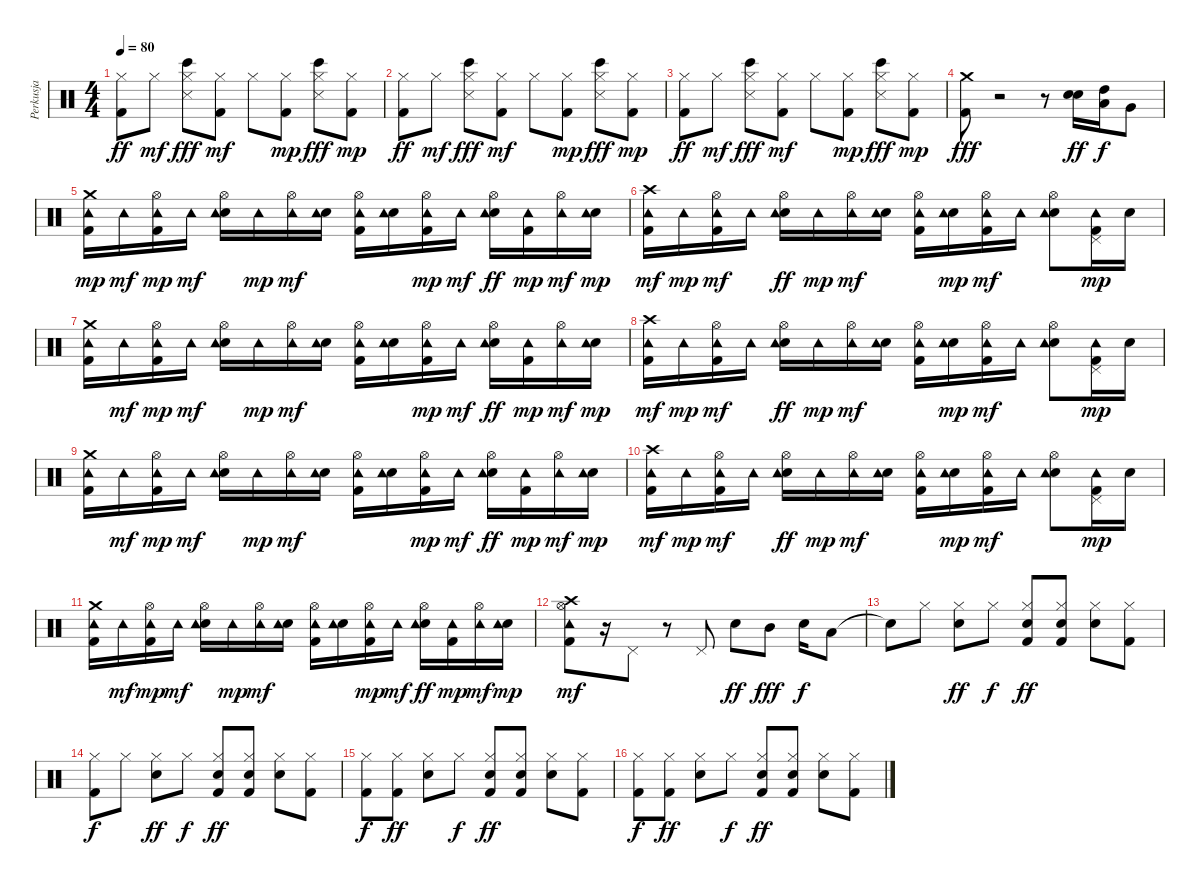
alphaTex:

\track ("Perkusja" "Perkusja") {instrument percussion}
\staff {score}
\articulation defaults
\ts (4 4)
\tempo 80
\clef neutral
\ks c
("Kick (hit) 2" "Hi-Hat (closed)").8{dy ff} "Hi-Hat (closed)".8{dy mf} ("Bongo High (hit)" "Snare (side stick) 3" "Hi-Hat (closed)").8{dy fff} ("Kick (hit) 2" "Hi-Hat (closed)").8{dy mf} "Hi-Hat (closed)".8 ("Kick (hit) 2" "Hi-Hat (closed)").8{dy mp} ("Bongo High (hit)" "Snare (side stick) 3" "Hi-Hat (closed)").8{dy fff} ("Hi-Hat (closed)" "Kick (hit) 2").8{dy mp} |
("Kick (hit) 2" "Hi-Hat (closed)").8{dy ff} "Hi-Hat (closed)".8{dy mf} ("Bongo High (hit)" "Snare (side stick) 3" "Hi-Hat (closed)").8{dy fff} ("Kick (hit) 2" "Hi-Hat (closed)").8{dy mf} "Hi-Hat (closed)".8 ("Kick (hit) 2" "Hi-Hat (closed)").8{dy mp} ("Bongo High (hit)" "Snare (side stick) 3" "Hi-Hat (closed)").8{dy fff} ("Hi-Hat (closed)" "Kick (hit) 2").8{dy mp} |
("Kick (hit) 2" "Hi-Hat (closed)").8{dy ff} "Hi-Hat (closed)".8{dy mf} ("Bongo High (hit)" "Snare (side stick) 3" "Hi-Hat (closed)").8{dy fff} ("Kick (hit) 2" "Hi-Hat (closed)").8{dy mf} "Hi-Hat (closed)".8 ("Kick (hit) 2" "Hi-Hat (closed)").8{dy mp} ("Bongo High (hit)" "Snare (side stick) 3" "Hi-Hat (closed)").8{dy fff} ("Hi-Hat (closed)" "Kick (hit) 2").8{dy mp} |
("Kick (hit) 2" "Crash medium (hit)").8{dy fff} r.2 r.8 ("Electric Snare (hit)" "Electric Snare (hit)").16{dy ff} ("High Tom (hit)" "Low Tom (hit)").16{dy f} "Very Low Tom (hit)".8 |
("Kick (hit) 2" "Tambourine (hit)" "Crash medium (hit)").16{dy mp} "Tambourine (hit)".16{dy mf} ("Kick (hit) 2" "Hi-Hat (open)" "Tambourine (hit)").16{dy mp} "Tambourine (hit)".16{dy mf} ("Electric Snare (hit)" "Hi-Hat (open)" "Tambourine (hit)").16 "Tambourine (hit)".16{dy mp} ("Hi-Hat (open)" "Tambourine (hit)").16{dy mf} ("Electric Snare (hit)" "Tambourine (hit)").16 ("Kick (hit) 2" "Hi-Hat (open)" "Tambourine (hit)").16 ("Electric Snare (hit)" "Tambourine (hit)").16 ("Kick (hit) 2" "Hi-Hat (open)" "Tambourine (hit)").16{dy mp} "Tambourine (hit)".16{dy mf} ("Electric Snare (hit)" "Hi-Hat (open)" "Tambourine (hit)").16{dy ff} ("Kick (hit) 2" "Tambourine (hit)").16{dy mp} ("Hi-Hat (open)" "Tambourine (hit)").16{dy mf} ("Electric Snare (hit)" "Tambourine (hit)").16{dy mp} |
("Kick (hit) 2" "Crash high (hit)" "Tambourine (hit)").16{dy mf} "Tambourine (hit)".16{dy mp} ("Kick (hit) 2" "Hi-Hat (open)" "Tambourine (hit)").16{dy mf} "Tambourine (hit)".16 ("Electric Snare (hit)" "Hi-Hat (open)" "Tambourine (hit)").16{dy ff} "Tambourine (hit)".16{dy mp} ("Hi-Hat (open)" "Tambourine (hit)").16{dy mf} ("Electric Snare (hit)" "Tambourine (hit)").16 ("Kick (hit) 2" "Hi-Hat (open)" "Tambourine (hit)").16 ("Electric Snare (hit)" "Tambourine (hit)").16{dy mp} ("Kick (hit) 2" "Hi-Hat (open)" "Tambourine (hit)").16{dy mf} "Tambourine (hit)".16 ("Electric Snare (hit)" "Hi-Hat (open)" "Tambourine (hit)").8 ("Kick (hit) 2" "Pedal Hi-Hat (hit)" "Tambourine (hit)").16{dy mp} "Electric Snare (hit)".16 |
("Kick (hit) 2" "Tambourine (hit)" "Crash medium (hit)").16 "Tambourine (hit)".16{dy mf} ("Kick (hit) 2" "Hi-Hat (open)" "Tambourine (hit)").16{dy mp} "Tambourine (hit)".16{dy mf} ("Electric Snare (hit)" "Hi-Hat (open)" "Tambourine (hit)").16 "Tambourine (hit)".16{dy mp} ("Hi-Hat (open)" "Tambourine (hit)").16{dy mf} ("Electric Snare (hit)" "Tambourine (hit)").16 ("Kick (hit) 2" "Hi-Hat (open)" "Tambourine (hit)").16 ("Electric Snare (hit)" "Tambourine (hit)").16 ("Kick (hit) 2" "Hi-Hat (open)" "Tambourine (hit)").16{dy mp} "Tambourine (hit)".16{dy mf} ("Electric Snare (hit)" "Hi-Hat (open)" "Tambourine (hit)").16{dy ff} ("Kick (hit) 2" "Tambourine (hit)").16{dy mp} ("Hi-Hat (open)" "Tambourine (hit)").16{dy mf} ("Electric Snare (hit)" "Tambourine (hit)").16{dy mp} |
("Kick (hit) 2" "Crash high (hit)" "Tambourine (hit)").16{dy mf} "Tambourine (hit)".16{dy mp} ("Kick (hit) 2" "Hi-Hat (open)" "Tambourine (hit)").16{dy mf} "Tambourine (hit)".16 ("Electric Snare (hit)" "Hi-Hat (open)" "Tambourine (hit)").16{dy ff} "Tambourine (hit)".16{dy mp} ("Hi-Hat (open)" "Tambourine (hit)").16{dy mf} ("Electric Snare (hit)" "Tambourine (hit)").16 ("Kick (hit) 2" "Hi-Hat (open)" "Tambourine (hit)").16 ("Electric Snare (hit)" "Tambourine (hit)").16{dy mp} ("Kick (hit) 2" "Hi-Hat (open)" "Tambourine (hit)").16{dy mf} "Tambourine (hit)".16 ("Electric Snare (hit)" "Hi-Hat (open)" "Tambourine (hit)").8 ("Kick (hit) 2" "Pedal Hi-Hat (hit)" "Tambourine (hit)").16{dy mp} "Electric Snare (hit)".16 |
("Kick (hit) 2" "Tambourine (hit)" "Crash medium (hit)").16 "Tambourine (hit)".16{dy mf} ("Kick (hit) 2" "Hi-Hat (open)" "Tambourine (hit)").16{dy mp} "Tambourine (hit)".16{dy mf} ("Electric Snare (hit)" "Hi-Hat (open)" "Tambourine (hit)").16 "Tambourine (hit)".16{dy mp} ("Hi-Hat (open)" "Tambourine (hit)").16{dy mf} ("Electric Snare (hit)" "Tambourine (hit)").16 ("Kick (hit) 2" "Hi-Hat (open)" "Tambourine (hit)").16 ("Electric Snare (hit)" "Tambourine (hit)").16 ("Kick (hit) 2" "Hi-Hat (open)" "Tambourine (hit)").16{dy mp} "Tambourine (hit)".16{dy mf} ("Electric Snare (hit)" "Hi-Hat (open)" "Tambourine (hit)").16{dy ff} ("Kick (hit) 2" "Tambourine (hit)").16{dy mp} ("Hi-Hat (open)" "Tambourine (hit)").16{dy mf} ("Electric Snare (hit)" "Tambourine (hit)").16{dy mp} |
("Kick (hit) 2" "Crash high (hit)" "Tambourine (hit)").16{dy mf} "Tambourine (hit)".16{dy mp} ("Kick (hit) 2" "Hi-Hat (open)" "Tambourine (hit)").16{dy mf} "Tambourine (hit)".16 ("Electric Snare (hit)" "Hi-Hat (open)" "Tambourine (hit)").16{dy ff} "Tambourine (hit)".16{dy mp} ("Hi-Hat (open)" "Tambourine (hit)").16{dy mf} ("Electric Snare (hit)" "Tambourine (hit)").16 ("Kick (hit) 2" "Hi-Hat (open)" "Tambourine (hit)").16 ("Electric Snare (hit)" "Tambourine (hit)").16{dy mp} ("Kick (hit) 2" "Hi-Hat (open)" "Tambourine (hit)").16{dy mf} "Tambourine (hit)".16 ("Electric Snare (hit)" "Hi-Hat (open)" "Tambourine (hit)").8 ("Kick (hit) 2" "Pedal Hi-Hat (hit)" "Tambourine (hit)").16{dy mp} "Electric Snare (hit)".16 |
("Kick (hit) 2" "Tambourine (hit)" "Crash medium (hit)").16 "Tambourine (hit)".16{dy mf} ("Kick (hit) 2" "Hi-Hat (open)" "Tambourine (hit)").16{dy mp} "Tambourine (hit)".16{dy mf} ("Electric Snare (hit)" "Hi-Hat (open)" "Tambourine (hit)").16 "Tambourine (hit)".16{dy mp} ("Hi-Hat (open)" "Tambourine (hit)").16{dy mf} ("Electric Snare (hit)" "Tambourine (hit)").16 ("Kick (hit) 2" "Hi-Hat (open)" "Tambourine (hit)").16 ("Electric Snare (hit)" "Tambourine (hit)").16 ("Kick (hit) 2" "Hi-Hat (open)" "Tambourine (hit)").16{dy mp} "Tambourine (hit)".16{dy mf} ("Electric Snare (hit)" "Hi-Hat (open)" "Tambourine (hit)").16{dy ff} ("Kick (hit) 2" "Tambourine (hit)").16{dy mp} ("Hi-Hat (open)" "Tambourine (hit)").16{dy mf} ("Electric Snare (hit)" "Tambourine (hit)").16{dy mp} |
("Kick (hit) 2" "Hi-Hat (open)" "Crash high (hit)" "Tambourine (hit)").8{dy mf} r.16 "Pedal Hi-Hat (hit)".8 r.8 "Pedal Hi-Hat (hit)".8 "Electric Snare (hit)".8{dy ff} "Mid Tom (hit)".8{dy fff} "Electric Snare (hit)".16{dy f} "Low Tom (hit)".8 |
"Snare (hit)"{t}.8 "Hi-Hat (closed)".8 ("Hi-Hat (closed)" "Electric Snare (hit)").8{dy ff} "Hi-Hat (closed)".8{dy f} ("Electric Snare (hit)" "Hi-Hat (closed)" "Kick (hit) 2").8{dy ff} ("Electric Snare (hit)" "Hi-Hat (closed)" "Kick (hit) 2").8 ("Hi-Hat (closed)" "Electric Snare (hit)").8 ("Kick (hit) 2" "Hi-Hat (closed)").8 |
("Hi-Hat (closed)" "Kick (hit) 2").8{dy f} "Hi-Hat (closed)".8 ("Hi-Hat (closed)" "Electric Snare (hit)").8{dy ff} "Hi-Hat (closed)".8{dy f} ("Electric Snare (hit)" "Hi-Hat (closed)" "Kick (hit) 2").8{dy ff} ("Electric Snare (hit)" "Hi-Hat (closed)" "Kick (hit) 2").8 ("Hi-Hat (closed)" "Electric Snare (hit)").8 ("Kick (hit) 2" "Hi-Hat (closed)").8 |
("Hi-Hat (closed)" "Kick (hit) 2").8{dy f} ("Kick (hit) 2" "Hi-Hat (closed)").8{dy ff} ("Hi-Hat (closed)" "Electric Snare (hit)").8 "Hi-Hat (closed)".8{dy f} ("Electric Snare (hit)" "Hi-Hat (closed)" "Kick (hit) 2").8{dy ff} ("Electric Snare (hit)" "Hi-Hat (closed)" "Kick (hit) 2").8 ("Hi-Hat (closed)" "Electric Snare (hit)").8 ("Kick (hit) 2" "Hi-Hat (closed)").8 |
("Hi-Hat (closed)" "Kick (hit) 2").8{dy f} ("Kick (hit) 2" "Hi-Hat (closed)").8{dy ff} ("Hi-Hat (closed)" "Electric Snare (hit)").8 "Hi-Hat (closed)".8{dy f} ("Electric Snare (hit)" "Hi-Hat (closed)" "Kick (hit) 2").8{dy ff} ("Electric Snare (hit)" "Hi-Hat (closed)" "Kick (hit) 2").8 ("Hi-Hat (closed)" "Electric Snare (hit)").8 ("Kick (hit) 2" "Hi-Hat (closed)").8
